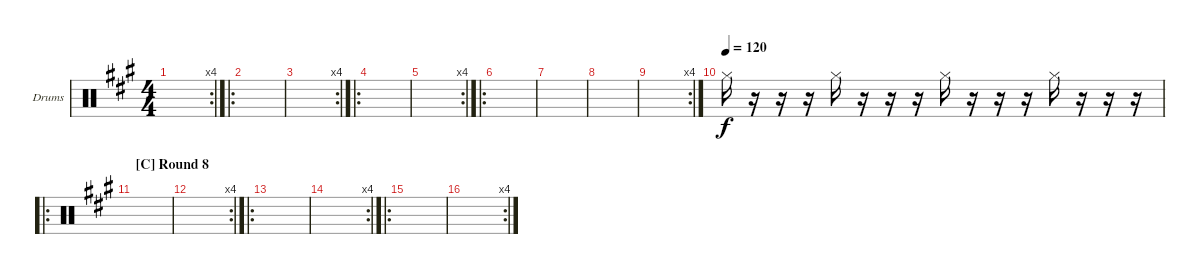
\defaultSystemsLayout 4
\bracketExtendMode groupsimilarinstruments
\firstSystemTrackNameOrientation horizontal
\otherSystemsTrackNameOrientation horizontal
\track ("Drumkit" "Drums") {instrument percussion}
\staff {score}
\articulation defaults
\rc 4
\ts (4 4)
\tempo (103 hide)
\clef neutral
\scale
0.313433
\ks a
|
\ro
\scale
0.343284 |
\rc 4
\scale
0.323077 |
\ro
\scale
0.353846 |
\rc 4
\scale
0.323077 |
\ro
\scale
0.377049 |
\scale
0.311475 |
\scale
0.311475 |
\rc 4
\scale
0.333333 |
\tempo 120
\scale
0.301587 "Hi-Hat (closed)".16 r.16 r.16 r.16 "Hi-Hat (closed)".16 r.16 r.16 r.16 "Hi-Hat (closed)".16 r.16 r.16 r.16 "Hi-Hat (closed)".16 r.16 r.16 r.16 |
\ro
\section ("C" "Round 8")
\tempo (120 hide)
\scale
0.365079 |
\rc 4
\scale
0.323077 |
\ro
\scale
0.353846 |
\rc 4
\scale
0.323077 |
\ro
\scale
0.343284 |
\rc 4
\scale
0.313433
